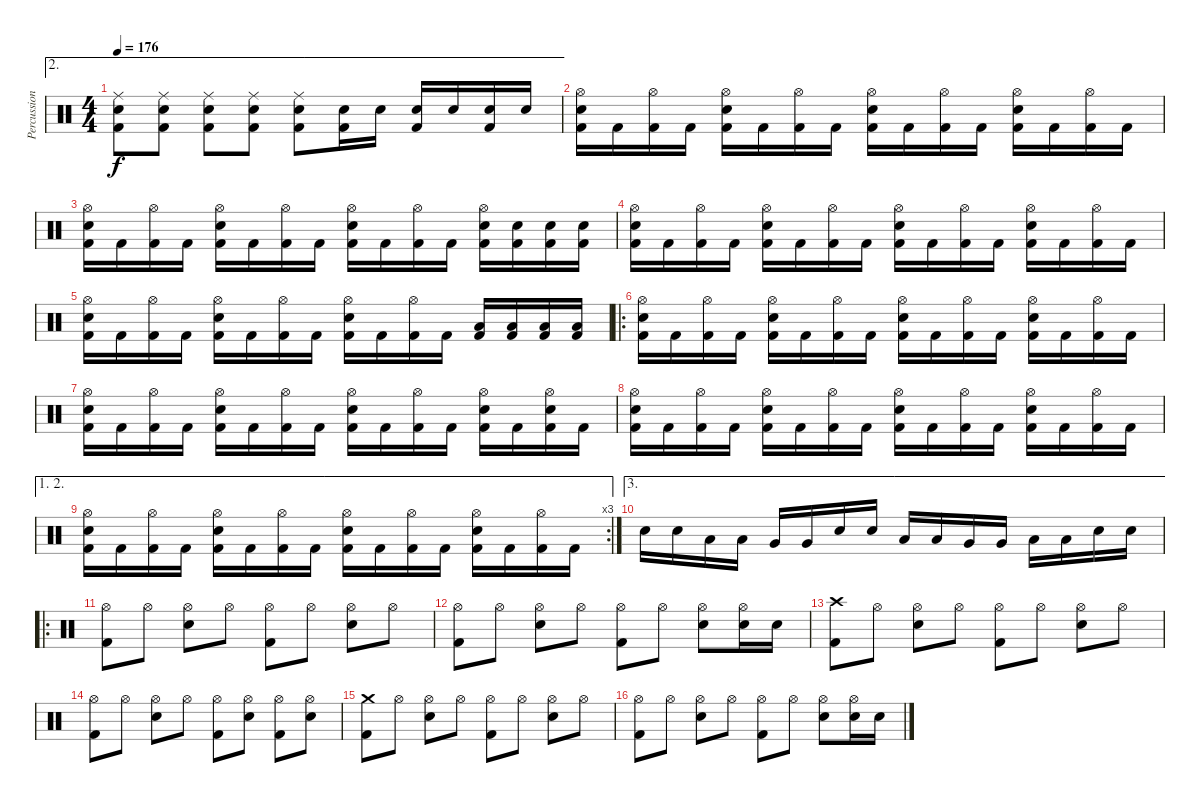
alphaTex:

\track ("Percussion" "Percussion") {instrument percussion}
\staff {score}
\articulation defaults
\ae 2
\ts (4 4)
\tempo 176
\clef neutral
\ks c
("Ride (middle)" "Electric Snare (hit)" "Kick (hit) 2").8{dy f} ("Ride (middle)" "Electric Snare (hit)" "Kick (hit) 2").8 ("Ride (middle)" "Electric Snare (hit)" "Kick (hit) 2").8 ("Ride (middle)" "Electric Snare (hit)" "Kick (hit) 2").8 ("Ride (middle)" "Electric Snare (hit)" "Kick (hit) 2").8 ("Electric Snare (hit)" "Kick (hit) 2").16 "Electric Snare (hit)".16 ("Electric Snare (hit)" "Kick (hit) 2").16 "Electric Snare (hit)".16 ("Electric Snare (hit)" "Kick (hit) 2").16 "Electric Snare (hit)".16 |
("Hi-Hat (open)" "Electric Snare (hit)" "Kick (hit) 2").16 "Kick (hit) 2".16 ("Hi-Hat (open)" "Kick (hit) 2").16 "Kick (hit) 2".16 ("Hi-Hat (open)" "Electric Snare (hit)" "Kick (hit) 2").16 "Kick (hit) 2".16 ("Hi-Hat (open)" "Kick (hit) 2").16 "Kick (hit) 2".16 ("Hi-Hat (open)" "Electric Snare (hit)" "Kick (hit) 2").16 "Kick (hit) 2".16 ("Hi-Hat (open)" "Kick (hit) 2").16 "Kick (hit) 2".16 ("Hi-Hat (open)" "Electric Snare (hit)" "Kick (hit) 2").16 "Kick (hit) 2".16 ("Hi-Hat (open)" "Kick (hit) 2").16 "Kick (hit) 2".16 |
("Hi-Hat (open)" "Electric Snare (hit)" "Kick (hit) 2").16 "Kick (hit) 2".16 ("Hi-Hat (open)" "Kick (hit) 2").16 "Kick (hit) 2".16 ("Hi-Hat (open)" "Electric Snare (hit)" "Kick (hit) 2").16 "Kick (hit) 2".16 ("Hi-Hat (open)" "Kick (hit) 2").16 "Kick (hit) 2".16 ("Hi-Hat (open)" "Electric Snare (hit)" "Kick (hit) 2").16 "Kick (hit) 2".16 ("Hi-Hat (open)" "Kick (hit) 2").16 "Kick (hit) 2".16 ("Hi-Hat (open)" "Electric Snare (hit)" "Kick (hit) 2").16 ("Electric Snare (hit)" "Kick (hit) 2").16 ("Electric Snare (hit)" "Kick (hit) 2").16 ("Electric Snare (hit)" "Kick (hit) 2").16 |
("Hi-Hat (open)" "Electric Snare (hit)" "Kick (hit) 2").16 "Kick (hit) 2".16 ("Hi-Hat (open)" "Kick (hit) 2").16 "Kick (hit) 2".16 ("Hi-Hat (open)" "Electric Snare (hit)" "Kick (hit) 2").16 "Kick (hit) 2".16 ("Hi-Hat (open)" "Kick (hit) 2").16 "Kick (hit) 2".16 ("Hi-Hat (open)" "Electric Snare (hit)" "Kick (hit) 2").16 "Kick (hit) 2".16 ("Hi-Hat (open)" "Kick (hit) 2").16 "Kick (hit) 2".16 ("Hi-Hat (open)" "Electric Snare (hit)" "Kick (hit) 2").16 "Kick (hit) 2".16 ("Hi-Hat (open)" "Kick (hit) 2").16 "Kick (hit) 2".16 |
("Hi-Hat (open)" "Electric Snare (hit)" "Kick (hit) 2").16 "Kick (hit) 2".16 ("Hi-Hat (open)" "Kick (hit) 2").16 "Kick (hit) 2".16 ("Hi-Hat (open)" "Electric Snare (hit)" "Kick (hit) 2").16 "Kick (hit) 2".16 ("Hi-Hat (open)" "Kick (hit) 2").16 "Kick (hit) 2".16 ("Hi-Hat (open)" "Electric Snare (hit)" "Kick (hit) 2").16 "Kick (hit) 2".16 ("Hi-Hat (open)" "Kick (hit) 2").16 "Kick (hit) 2".16 ("Low Floor Tom (hit)" "Kick (hit) 2").16 ("Low Floor Tom (hit)" "Kick (hit) 2").16 ("Low Floor Tom (hit)" "Kick (hit) 2").16 ("Low Floor Tom (hit)" "Kick (hit) 2").16 |
\ro
("Hi-Hat (open)" "Electric Snare (hit)" "Kick (hit) 2").16 "Kick (hit) 2".16 ("Hi-Hat (open)" "Kick (hit) 2").16 "Kick (hit) 2".16 ("Hi-Hat (open)" "Electric Snare (hit)" "Kick (hit) 2").16 "Kick (hit) 2".16 ("Hi-Hat (open)" "Kick (hit) 2").16 "Kick (hit) 2".16 ("Hi-Hat (open)" "Electric Snare (hit)" "Kick (hit) 2").16 "Kick (hit) 2".16 ("Hi-Hat (open)" "Kick (hit) 2").16 "Kick (hit) 2".16 ("Hi-Hat (open)" "Electric Snare (hit)" "Kick (hit) 2").16 "Kick (hit) 2".16 ("Hi-Hat (open)" "Kick (hit) 2").16 "Kick (hit) 2".16 |
("Hi-Hat (open)" "Electric Snare (hit)" "Kick (hit) 2").16 "Kick (hit) 2".16 ("Hi-Hat (open)" "Kick (hit) 2").16 "Kick (hit) 2".16 ("Hi-Hat (open)" "Electric Snare (hit)" "Kick (hit) 2").16 "Kick (hit) 2".16 ("Hi-Hat (open)" "Kick (hit) 2").16 "Kick (hit) 2".16 ("Hi-Hat (open)" "Electric Snare (hit)" "Kick (hit) 2").16 "Kick (hit) 2".16 ("Hi-Hat (open)" "Kick (hit) 2").16 "Kick (hit) 2".16 ("Hi-Hat (open)" "Electric Snare (hit)" "Kick (hit) 2").16 "Kick (hit) 2".16 ("Hi-Hat (open)" "Electric Snare (hit)" "Kick (hit) 2").16 "Kick (hit) 2".16 |
("Hi-Hat (open)" "Electric Snare (hit)" "Kick (hit) 2").16 "Kick (hit) 2".16 ("Hi-Hat (open)" "Kick (hit) 2").16 "Kick (hit) 2".16 ("Hi-Hat (open)" "Electric Snare (hit)" "Kick (hit) 2").16 "Kick (hit) 2".16 ("Hi-Hat (open)" "Kick (hit) 2").16 "Kick (hit) 2".16 ("Hi-Hat (open)" "Electric Snare (hit)" "Kick (hit) 2").16 "Kick (hit) 2".16 ("Hi-Hat (open)" "Kick (hit) 2").16 "Kick (hit) 2".16 ("Hi-Hat (open)" "Electric Snare (hit)" "Kick (hit) 2").16 "Kick (hit) 2".16 ("Hi-Hat (open)" "Kick (hit) 2").16 "Kick (hit) 2".16 |
\ae (1 2)
\rc 3
("Hi-Hat (open)" "Electric Snare (hit)" "Kick (hit) 2").16 "Kick (hit) 2".16 ("Hi-Hat (open)" "Kick (hit) 2").16 "Kick (hit) 2".16 ("Hi-Hat (open)" "Electric Snare (hit)" "Kick (hit) 2").16 "Kick (hit) 2".16 ("Hi-Hat (open)" "Kick (hit) 2").16 "Kick (hit) 2".16 ("Hi-Hat (open)" "Electric Snare (hit)" "Kick (hit) 2").16 "Kick (hit) 2".16 ("Hi-Hat (open)" "Kick (hit) 2").16 "Kick (hit) 2".16 ("Hi-Hat (open)" "Electric Snare (hit)" "Kick (hit) 2").16 "Kick (hit) 2".16 ("Hi-Hat (open)" "Kick (hit) 2").16 "Kick (hit) 2".16 |
\ae 3 "Electric Snare (hit)".16 "Electric Snare (hit)".16 "Low Tom (hit)".16 "Low Tom (hit)".16 "Very Low Tom (hit)".16 "Very Low Tom (hit)".16 "Electric Snare (hit)".16 "Electric Snare (hit)".16 "Low Tom (hit)".16 "Low Tom (hit)".16 "Very Low Tom (hit)".16 "Very Low Tom (hit)".16 "Low Floor Tom (hit)".16 "Low Floor Tom (hit)".16 "Electric Snare (hit)".16 "Electric Snare (hit)".16
|
\ro
("Hi-Hat (open)" "Kick (hit) 2").8 "Hi-Hat (open)".8 ("Hi-Hat (open)" "Electric Snare (hit)").8 "Hi-Hat (open)".8 ("Hi-Hat (open)" "Kick (hit) 2").8 "Hi-Hat (open)".8 ("Hi-Hat (open)" "Electric Snare (hit)").8 "Hi-Hat (open)".8 |
("Hi-Hat (open)" "Kick (hit) 2").8 "Hi-Hat (open)".8 ("Hi-Hat (open)" "Electric Snare (hit)").8 "Hi-Hat (open)".8 ("Hi-Hat (open)" "Kick (hit) 2").8 "Hi-Hat (open)".8 ("Hi-Hat (open)" "Electric Snare (hit)").8 ("Hi-Hat (open)" "Electric Snare (hit)").16 "Electric Snare (hit)".16 |
("Crash high (hit)" "Kick (hit) 2").8 "Hi-Hat (open)".8 ("Hi-Hat (open)" "Electric Snare (hit)").8 "Hi-Hat (open)".8 ("Hi-Hat (open)" "Kick (hit) 2").8 "Hi-Hat (open)".8 ("Hi-Hat (open)" "Electric Snare (hit)").8 "Hi-Hat (open)".8 |
("Hi-Hat (open)" "Kick (hit) 2").8 "Hi-Hat (open)".8 ("Hi-Hat (open)" "Electric Snare (hit)").8 "Hi-Hat (open)".8 ("Hi-Hat (open)" "Kick (hit) 2").8 ("Hi-Hat (open)" "Electric Snare (hit)").8 ("Hi-Hat (open)" "Kick (hit) 2").8 ("Hi-Hat (open)" "Electric Snare (hit)").8 |
("Crash medium (hit)" "Kick (hit) 2").8 "Hi-Hat (open)".8 ("Hi-Hat (open)" "Electric Snare (hit)").8 "Hi-Hat (open)".8 ("Hi-Hat (open)" "Kick (hit) 2").8 "Hi-Hat (open)".8 ("Hi-Hat (open)" "Electric Snare (hit)").8 "Hi-Hat (open)".8 |
("Hi-Hat (open)" "Kick (hit) 2").8 "Hi-Hat (open)".8 ("Hi-Hat (open)" "Electric Snare (hit)").8 "Hi-Hat (open)".8 ("Hi-Hat (open)" "Kick (hit) 2").8 "Hi-Hat (open)".8 ("Hi-Hat (open)" "Electric Snare (hit)").8 ("Hi-Hat (open)" "Electric Snare (hit)").16 "Electric Snare (hit)".16
